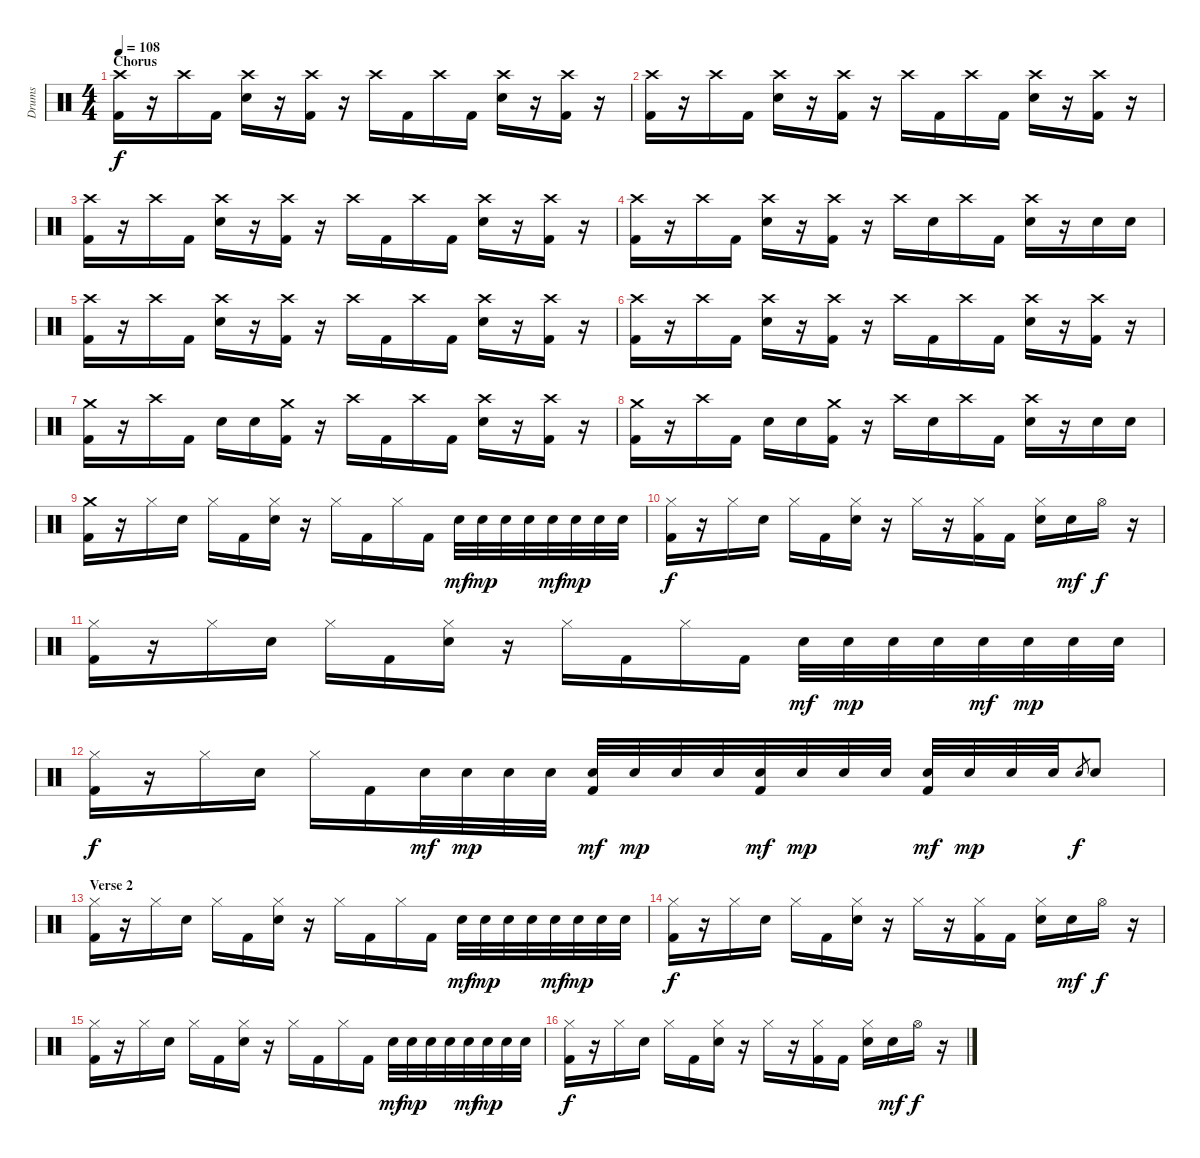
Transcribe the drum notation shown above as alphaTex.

\track ("Drums" "Drums") {instrument percussion}
\staff {score}
\articulation defaults
\ts (4 4)
\section ("" "Chorus")
\tempo 108
\clef neutral
\ks c
("Crash high (hit)" "Kick (hit) 2").16{dy f} r.16 "Crash high (hit)".16 "Kick (hit) 2".16 ("Crash high (hit)" "Electric Snare (hit)").16 r.16 ("Crash high (hit)" "Kick (hit) 2").16 r.16 "Crash high (hit)".16 "Kick (hit) 2".16 "Crash high (hit)".16 "Kick (hit) 2".16 ("Crash high (hit)" "Electric Snare (hit)").16 r.16 ("Crash high (hit)" "Kick (hit) 2").16 r.16 |
("Crash high (hit)" "Kick (hit) 2").16 r.16 "Crash high (hit)".16 "Kick (hit) 2".16 ("Crash high (hit)" "Electric Snare (hit)").16 r.16 ("Crash high (hit)" "Kick (hit) 2").16 r.16 "Crash high (hit)".16 "Kick (hit) 2".16 "Crash high (hit)".16 "Kick (hit) 2".16 ("Crash high (hit)" "Electric Snare (hit)").16 r.16 ("Crash high (hit)" "Kick (hit) 2").16 r.16 |
("Crash high (hit)" "Kick (hit) 2").16 r.16 "Crash high (hit)".16 "Kick (hit) 2".16 ("Crash high (hit)" "Electric Snare (hit)").16 r.16 ("Crash high (hit)" "Kick (hit) 2").16 r.16 "Crash high (hit)".16 "Kick (hit) 2".16 "Crash high (hit)".16 "Kick (hit) 2".16 ("Crash high (hit)" "Electric Snare (hit)").16 r.16 ("Crash high (hit)" "Kick (hit) 2").16 r.16 |
("Crash high (hit)" "Kick (hit) 2").16 r.16 "Crash high (hit)".16 "Kick (hit) 2".16 ("Crash high (hit)" "Electric Snare (hit)").16 r.16 ("Crash high (hit)" "Kick (hit) 2").16 r.16 "Crash high (hit)".16 "Electric Snare (hit)".16 "Crash high (hit)".16 "Kick (hit) 2".16 ("Crash high (hit)" "Electric Snare (hit)").16 r.16 "Electric Snare (hit)".16 "Electric Snare (hit)".16 |
("Crash high (hit)" "Kick (hit) 2").16 r.16 "Crash high (hit)".16 "Kick (hit) 2".16 ("Crash high (hit)" "Electric Snare (hit)").16 r.16 ("Crash high (hit)" "Kick (hit) 2").16 r.16 "Crash high (hit)".16 "Kick (hit) 2".16 "Crash high (hit)".16 "Kick (hit) 2".16 ("Crash high (hit)" "Electric Snare (hit)").16 r.16 ("Crash high (hit)" "Kick (hit) 2").16 r.16 |
("Crash high (hit)" "Kick (hit) 2").16 r.16 "Crash high (hit)".16 "Kick (hit) 2".16 ("Crash high (hit)" "Electric Snare (hit)").16 r.16 ("Crash high (hit)" "Kick (hit) 2").16 r.16 "Crash high (hit)".16 "Kick (hit) 2".16 "Crash high (hit)".16 "Kick (hit) 2".16 ("Crash high (hit)" "Electric Snare (hit)").16 r.16 ("Crash high (hit)" "Kick (hit) 2").16 r.16 |
("Crash medium (hit)" "Kick (hit) 2").16 r.16 "Crash high (hit)".16 "Kick (hit) 2".16 "Electric Snare (hit)".16 "Electric Snare (hit)".16 ("Crash medium (hit)" "Kick (hit) 2").16 r.16 "Crash high (hit)".16 "Kick (hit) 2".16 "Crash high (hit)".16 "Kick (hit) 2".16 ("Crash high (hit)" "Electric Snare (hit)").16 r.16 ("Crash high (hit)" "Kick (hit) 2").16 r.16 |
("Crash medium (hit)" "Kick (hit) 2").16 r.16 "Crash high (hit)".16 "Kick (hit) 2".16 "Electric Snare (hit)".16 "Electric Snare (hit)".16 ("Crash medium (hit)" "Kick (hit) 2").16 r.16 "Crash high (hit)".16 "Electric Snare (hit)".16 "Crash high (hit)".16 "Kick (hit) 2".16 ("Crash high (hit)" "Electric Snare (hit)").16 r.16 "Electric Snare (hit)".16 "Electric Snare (hit)".16 |
("Crash medium (hit)" "Kick (hit) 2").16 r.16 "Hi-Hat (closed)".16 "Electric Snare (hit)".16 "Hi-Hat (closed)".16 "Kick (hit) 2".16 ("Hi-Hat (closed)" "Electric Snare (hit)").16 r.16 "Hi-Hat (closed)".16 "Kick (hit) 2".16 "Hi-Hat (closed)".16 "Kick (hit) 2".16 "Electric Snare (hit)".32{dy mf} "Electric Snare (hit)".32{dy mp} "Electric Snare (hit)".32 "Electric Snare (hit)".32 "Electric Snare (hit)".32{dy mf} "Electric Snare (hit)".32{dy mp} "Electric Snare (hit)".32 "Electric Snare (hit)".32 |
("Hi-Hat (closed)" "Kick (hit) 2").16{dy f} r.16 "Hi-Hat (closed)".16 "Electric Snare (hit)".16 "Hi-Hat (closed)".16 "Kick (hit) 2".16 ("Hi-Hat (closed)" "Electric Snare (hit)").16 r.16 "Hi-Hat (closed)".16 r.16 ("Hi-Hat (closed)" "Kick (hit) 2").16 "Kick (hit) 2".16 ("Hi-Hat (closed)" "Electric Snare (hit)").16 "Electric Snare (hit)".16{dy mf} "Hi-Hat (open)".16{dy f} r.16 |
("Hi-Hat (closed)" "Kick (hit) 2").16 r.16 "Hi-Hat (closed)".16 "Electric Snare (hit)".16 "Hi-Hat (closed)".16 "Kick (hit) 2".16 ("Hi-Hat (closed)" "Electric Snare (hit)").16 r.16 "Hi-Hat (closed)".16 "Kick (hit) 2".16 "Hi-Hat (closed)".16 "Kick (hit) 2".16 "Electric Snare (hit)".32{dy mf} "Electric Snare (hit)".32{dy mp} "Electric Snare (hit)".32 "Electric Snare (hit)".32 "Electric Snare (hit)".32{dy mf} "Electric Snare (hit)".32{dy mp} "Electric Snare (hit)".32 "Electric Snare (hit)".32 |
("Hi-Hat (closed)" "Kick (hit) 2").16{dy f} r.16 "Hi-Hat (closed)".16 "Electric Snare (hit)".16 "Hi-Hat (closed)".16 "Kick (hit) 2".16 "Electric Snare (hit)".32{dy mf} "Electric Snare (hit)".32{dy mp} "Electric Snare (hit)".32 "Electric Snare (hit)".32 ("Electric Snare (hit)" "Kick (hit) 2").32{dy mf} "Electric Snare (hit)".32{dy mp} "Electric Snare (hit)".32 "Electric Snare (hit)".32 ("Electric Snare (hit)" "Kick (hit) 2").32{dy mf} "Electric Snare (hit)".32{dy mp} "Electric Snare (hit)".32 "Electric Snare (hit)".32 ("Electric Snare (hit)" "Kick (hit) 2").32{dy mf} "Electric Snare (hit)".32{dy mp} "Electric Snare (hit)".32 "Electric Snare (hit)".32 "Electric Snare (hit)".8{gr dy f} "Electric Snare (hit)".8 |
\section ("" "Verse 2")
("Hi-Hat (closed)" "Kick (hit) 2").16 r.16 "Hi-Hat (closed)".16 "Electric Snare (hit)".16 "Hi-Hat (closed)".16 "Kick (hit) 2".16 ("Hi-Hat (closed)" "Electric Snare (hit)").16 r.16 "Hi-Hat (closed)".16 "Kick (hit) 2".16 "Hi-Hat (closed)".16 "Kick (hit) 2".16 "Electric Snare (hit)".32{dy mf} "Electric Snare (hit)".32{dy mp} "Electric Snare (hit)".32 "Electric Snare (hit)".32 "Electric Snare (hit)".32{dy mf} "Electric Snare (hit)".32{dy mp} "Electric Snare (hit)".32 "Electric Snare (hit)".32 |
("Hi-Hat (closed)" "Kick (hit) 2").16{dy f} r.16 "Hi-Hat (closed)".16 "Electric Snare (hit)".16 "Hi-Hat (closed)".16 "Kick (hit) 2".16 ("Hi-Hat (closed)" "Electric Snare (hit)").16 r.16 "Hi-Hat (closed)".16 r.16 ("Hi-Hat (closed)" "Kick (hit) 2").16 "Kick (hit) 2".16 ("Hi-Hat (closed)" "Electric Snare (hit)").16 "Electric Snare (hit)".16{dy mf} "Hi-Hat (open)".16{dy f} r.16 |
("Hi-Hat (closed)" "Kick (hit) 2").16 r.16 "Hi-Hat (closed)".16 "Electric Snare (hit)".16 "Hi-Hat (closed)".16 "Kick (hit) 2".16 ("Hi-Hat (closed)" "Electric Snare (hit)").16 r.16 "Hi-Hat (closed)".16 "Kick (hit) 2".16 "Hi-Hat (closed)".16 "Kick (hit) 2".16 "Electric Snare (hit)".32{dy mf} "Electric Snare (hit)".32{dy mp} "Electric Snare (hit)".32 "Electric Snare (hit)".32 "Electric Snare (hit)".32{dy mf} "Electric Snare (hit)".32{dy mp} "Electric Snare (hit)".32 "Electric Snare (hit)".32 |
("Hi-Hat (closed)" "Kick (hit) 2").16{dy f} r.16 "Hi-Hat (closed)".16 "Electric Snare (hit)".16 "Hi-Hat (closed)".16 "Kick (hit) 2".16 ("Hi-Hat (closed)" "Electric Snare (hit)").16 r.16 "Hi-Hat (closed)".16 r.16 ("Hi-Hat (closed)" "Kick (hit) 2").16 "Kick (hit) 2".16 ("Hi-Hat (closed)" "Electric Snare (hit)").16 "Electric Snare (hit)".16{dy mf} "Hi-Hat (open)".16{dy f} r.16
